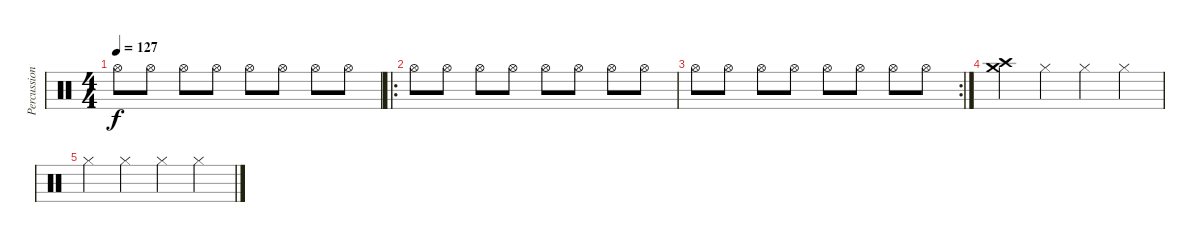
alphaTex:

\track ("Percussion" "Percussion") {instrument percussion}
\staff {score}
\articulation defaults
\ts (4 4)
\tempo 127
\clef neutral
\ks c "Hi-Hat (open)".8{dy f} "Hi-Hat (open)".8 "Hi-Hat (open)".8 "Hi-Hat (open)".8 "Hi-Hat (open)".8 "Hi-Hat (open)".8 "Hi-Hat (open)".8 "Hi-Hat (open)".8
|
\ro "Hi-Hat (open)".8 "Hi-Hat (open)".8 "Hi-Hat (open)".8 "Hi-Hat (open)".8 "Hi-Hat (open)".8 "Hi-Hat (open)".8 "Hi-Hat (open)".8 "Hi-Hat (open)".8
|
\rc 2 "Hi-Hat (open)".8 "Hi-Hat (open)".8 "Hi-Hat (open)".8 "Hi-Hat (open)".8 "Hi-Hat (open)".8 "Hi-Hat (open)".8 "Hi-Hat (open)".8 "Hi-Hat (open)".8
|
("Crash medium (hit)" "Crash high (hit)").4 "Hi-Hat (closed)".4 "Hi-Hat (closed)".4 "Hi-Hat (closed)".4 |
"Hi-Hat (closed)".4 "Hi-Hat (closed)".4 "Hi-Hat (closed)".4 "Hi-Hat (closed)".4
